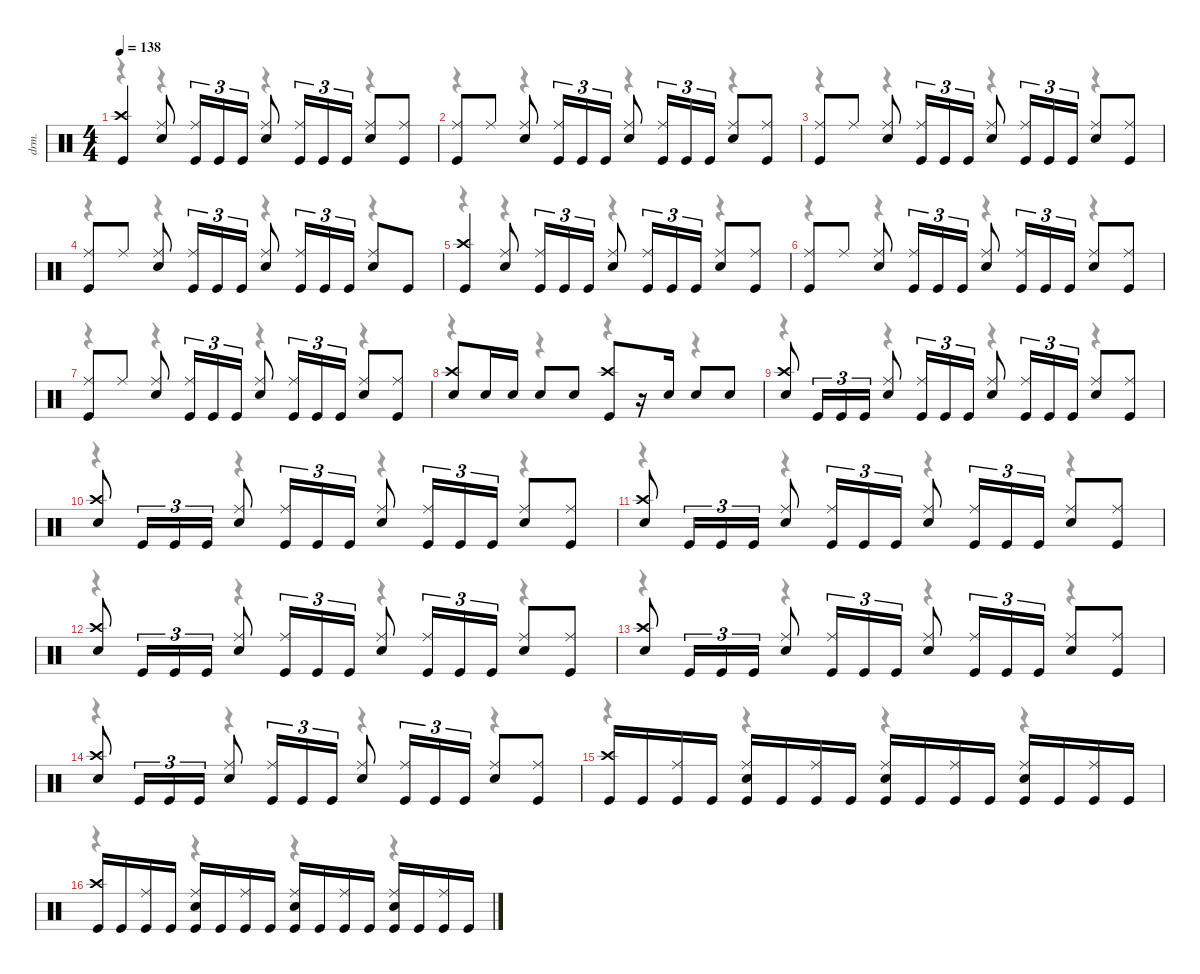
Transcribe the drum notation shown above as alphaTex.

\defaultSystemsLayout 4
\hideDynamics
\bracketExtendMode nobrackets
\track ("Drumkit" "drm.") {instrument percussion}
\staff {score}
\articulation defaults
\voice
\ts (4 4)
\tempo 138
\clef neutral
\ks c
("Kick (hit)" "Crash high (hit)").4{dy f} ("Snare (hit) 2" "Ride (middle)").8 ("Ride (middle)" "Kick (hit)").16{tu (3 2)} "Kick (hit)".16{tu (3 2)} "Kick (hit)".16{tu (3 2)} ("Ride (middle)" "Snare (hit) 2").8 ("Ride (middle)" "Kick (hit)").16{tu (3 2)} "Kick (hit)".16{tu (3 2)} "Kick (hit)".16{tu (3 2)} ("Ride (middle)" "Snare (hit) 2").8 ("Ride (middle)" "Kick (hit)").8 |
("Kick (hit)" "Ride (middle)").8 "Ride (middle)".8 ("Snare (hit) 2" "Ride (middle)").8 ("Kick (hit)" "Ride (middle)").16{tu (3 2)} "Kick (hit)".16{tu (3 2)} "Kick (hit)".16{tu (3 2)} ("Snare (hit) 2" "Ride (middle)").8 ("Kick (hit)" "Ride (middle)").16{tu (3 2)} "Kick (hit)".16{tu (3 2)} "Kick (hit)".16{tu (3 2)} ("Snare (hit) 2" "Ride (middle)").8 ("Kick (hit)" "Ride (middle)").8 |
("Kick (hit)" "Ride (middle)").8 "Ride (middle)".8 ("Snare (hit) 2" "Ride (middle)").8 ("Kick (hit)" "Ride (middle)").16{tu (3 2)} "Kick (hit)".16{tu (3 2)} "Kick (hit)".16{tu (3 2)} ("Snare (hit) 2" "Ride (middle)").8 ("Kick (hit)" "Ride (middle)").16{tu (3 2)} "Kick (hit)".16{tu (3 2)} "Kick (hit)".16{tu (3 2)} ("Snare (hit) 2" "Ride (middle)").8 ("Kick (hit)" "Ride (middle)").8 |
("Ride (middle)" "Kick (hit)").8 "Ride (middle)".8 ("Snare (hit) 2" "Ride (middle)").8 ("Kick (hit)" "Ride (middle)").16{tu (3 2)} "Kick (hit)".16{tu (3 2)} "Kick (hit)".16{tu (3 2)} ("Snare (hit) 2" "Ride (middle)").8 ("Kick (hit)" "Ride (middle)").16{tu (3 2)} "Kick (hit)".16{tu (3 2)} "Kick (hit)".16{tu (3 2)} ("Snare (hit) 2" "Ride (middle)").8 "Kick (hit)".8 |
("Kick (hit)" "Crash high (hit)").4 ("Snare (hit) 2" "Ride (middle)").8 ("Ride (middle)" "Kick (hit)").16{tu (3 2)} "Kick (hit)".16{tu (3 2)} "Kick (hit)".16{tu (3 2)} ("Ride (middle)" "Snare (hit) 2").8 ("Ride (middle)" "Kick (hit)").16{tu (3 2)} "Kick (hit)".16{tu (3 2)} "Kick (hit)".16{tu (3 2)} ("Ride (middle)" "Snare (hit) 2").8 ("Ride (middle)" "Kick (hit)").8 |
("Kick (hit)" "Ride (middle)").8 "Ride (middle)".8 ("Snare (hit) 2" "Ride (middle)").8 ("Kick (hit)" "Ride (middle)").16{tu (3 2)} "Kick (hit)".16{tu (3 2)} "Kick (hit)".16{tu (3 2)} ("Snare (hit) 2" "Ride (middle)").8 ("Kick (hit)" "Ride (middle)").16{tu (3 2)} "Kick (hit)".16{tu (3 2)} "Kick (hit)".16{tu (3 2)} ("Snare (hit) 2" "Ride (middle)").8 ("Kick (hit)" "Ride (middle)").8 |
("Kick (hit)" "Ride (middle)").8 "Ride (middle)".8 ("Snare (hit) 2" "Ride (middle)").8 ("Kick (hit)" "Ride (middle)").16{tu (3 2)} "Kick (hit)".16{tu (3 2)} "Kick (hit)".16{tu (3 2)} ("Snare (hit) 2" "Ride (middle)").8 ("Kick (hit)" "Ride (middle)").16{tu (3 2)} "Kick (hit)".16{tu (3 2)} "Kick (hit)".16{tu (3 2)} ("Snare (hit) 2" "Ride (middle)").8 ("Kick (hit)" "Ride (middle)").8 |
("Snare (hit) 2" "Crash high (hit)").8 "Snare (hit) 2".16 "Snare (hit) 2".16 "Snare (hit) 2".8 "Snare (hit) 2".8 ("Crash high (hit)" "Kick (hit)").8 r.16 "Snare (hit) 2".16 "Snare (hit) 2".8 "Snare (hit) 2".8 |
("Crash high (hit)" "Snare (hit) 2").8 "Kick (hit)".16{tu (3 2)} "Kick (hit)".16{tu (3 2)} "Kick (hit)".16{tu (3 2)} ("Snare (hit) 2" "Ride (middle)").8 ("Kick (hit)" "Ride (middle)").16{tu (3 2)} "Kick (hit)".16{tu (3 2)} "Kick (hit)".16{tu (3 2)} ("Ride (middle)" "Snare (hit) 2").8 ("Ride (middle)" "Kick (hit)").16{tu (3 2)} "Kick (hit)".16{tu (3 2)} "Kick (hit)".16{tu (3 2)} ("Ride (middle)" "Snare (hit) 2").8 ("Ride (middle)" "Kick (hit)").8 |
("Crash high (hit)" "Snare (hit) 2").8 "Kick (hit)".16{tu (3 2)} "Kick (hit)".16{tu (3 2)} "Kick (hit)".16{tu (3 2)} ("Snare (hit) 2" "Ride (middle)").8 ("Kick (hit)" "Ride (middle)").16{tu (3 2)} "Kick (hit)".16{tu (3 2)} "Kick (hit)".16{tu (3 2)} ("Ride (middle)" "Snare (hit) 2").8 ("Ride (middle)" "Kick (hit)").16{tu (3 2)} "Kick (hit)".16{tu (3 2)} "Kick (hit)".16{tu (3 2)} ("Ride (middle)" "Snare (hit) 2").8 ("Ride (middle)" "Kick (hit)").8 |
("Crash high (hit)" "Snare (hit) 2").8 "Kick (hit)".16{tu (3 2)} "Kick (hit)".16{tu (3 2)} "Kick (hit)".16{tu (3 2)} ("Snare (hit) 2" "Ride (middle)").8 ("Kick (hit)" "Ride (middle)").16{tu (3 2)} "Kick (hit)".16{tu (3 2)} "Kick (hit)".16{tu (3 2)} ("Ride (middle)" "Snare (hit) 2").8 ("Ride (middle)" "Kick (hit)").16{tu (3 2)} "Kick (hit)".16{tu (3 2)} "Kick (hit)".16{tu (3 2)} ("Ride (middle)" "Snare (hit) 2").8 ("Ride (middle)" "Kick (hit)").8 |
("Crash high (hit)" "Snare (hit) 2").8 "Kick (hit)".16{tu (3 2)} "Kick (hit)".16{tu (3 2)} "Kick (hit)".16{tu (3 2)} ("Snare (hit) 2" "Ride (middle)").8 ("Kick (hit)" "Ride (middle)").16{tu (3 2)} "Kick (hit)".16{tu (3 2)} "Kick (hit)".16{tu (3 2)} ("Ride (middle)" "Snare (hit) 2").8 ("Ride (middle)" "Kick (hit)").16{tu (3 2)} "Kick (hit)".16{tu (3 2)} "Kick (hit)".16{tu (3 2)} ("Ride (middle)" "Snare (hit) 2").8 ("Ride (middle)" "Kick (hit)").8 |
("Crash high (hit)" "Snare (hit) 2").8 "Kick (hit)".16{tu (3 2)} "Kick (hit)".16{tu (3 2)} "Kick (hit)".16{tu (3 2)} ("Snare (hit) 2" "Ride (middle)").8 ("Kick (hit)" "Ride (middle)").16{tu (3 2)} "Kick (hit)".16{tu (3 2)} "Kick (hit)".16{tu (3 2)} ("Ride (middle)" "Snare (hit) 2").8 ("Ride (middle)" "Kick (hit)").16{tu (3 2)} "Kick (hit)".16{tu (3 2)} "Kick (hit)".16{tu (3 2)} ("Ride (middle)" "Snare (hit) 2").8 ("Ride (middle)" "Kick (hit)").8 |
("Crash high (hit)" "Snare (hit) 2").8 "Kick (hit)".16{tu (3 2)} "Kick (hit)".16{tu (3 2)} "Kick (hit)".16{tu (3 2)} ("Snare (hit) 2" "Ride (middle)").8 ("Kick (hit)" "Ride (middle)").16{tu (3 2)} "Kick (hit)".16{tu (3 2)} "Kick (hit)".16{tu (3 2)} ("Ride (middle)" "Snare (hit) 2").8 ("Ride (middle)" "Kick (hit)").16{tu (3 2)} "Kick (hit)".16{tu (3 2)} "Kick (hit)".16{tu (3 2)} ("Ride (middle)" "Snare (hit) 2").8 ("Ride (middle)" "Kick (hit)").8 |
("Kick (hit)" "Crash high (hit)").16 "Kick (hit)".16 ("Kick (hit)" "Ride (middle)").16 "Kick (hit)".16 ("Kick (hit)" "Snare (hit) 2" "Ride (middle)").16 "Kick (hit)".16 ("Kick (hit)" "Ride (middle)").16 "Kick (hit)".16 ("Kick (hit)" "Snare (hit) 2" "Ride (middle)").16 "Kick (hit)".16 ("Kick (hit)" "Ride (middle)").16 "Kick (hit)".16 ("Kick (hit)" "Snare (hit) 2" "Ride (middle)").16 "Kick (hit)".16 ("Kick (hit)" "Ride (middle)").16 "Kick (hit)".16 |
("Kick (hit)" "Crash high (hit)").16 "Kick (hit)".16 ("Kick (hit)" "Ride (middle)").16 "Kick (hit)".16 ("Kick (hit)" "Snare (hit) 2" "Ride (middle)").16 "Kick (hit)".16 ("Kick (hit)" "Ride (middle)").16 "Kick (hit)".16 ("Kick (hit)" "Snare (hit) 2" "Ride (middle)").16 "Kick (hit)".16 ("Kick (hit)" "Ride (middle)").16 "Kick (hit)".16 ("Kick (hit)" "Snare (hit) 2" "Ride (middle)").16 "Kick (hit)".16 ("Kick (hit)" "Ride (middle)").16 "Kick (hit)".16
\voice
\clef neutral
\ottava regular
\simile none
\ks c
r.4{dy mf} r.4 r.4 r.4 |
r.4 r.4 r.4 r.4 |
r.4 r.4 r.4 r.4 |
r.4 r.4 r.4 r.4 |
r.4 r.4 r.4 r.4 |
r.4 r.4 r.4 r.4 |
r.4 r.4 r.4 r.4 |
r.4 r.4 r.4 r.4 |
r.4 r.4 r.4 r.4 |
r.4 r.4 r.4 r.4 |
r.4 r.4 r.4 r.4 |
r.4 r.4 r.4 r.4 |
r.4 r.4 r.4 r.4 |
r.4 r.4 r.4 r.4 |
r.4 r.4 r.4 r.4 |
r.4 r.4 r.4 r.4
